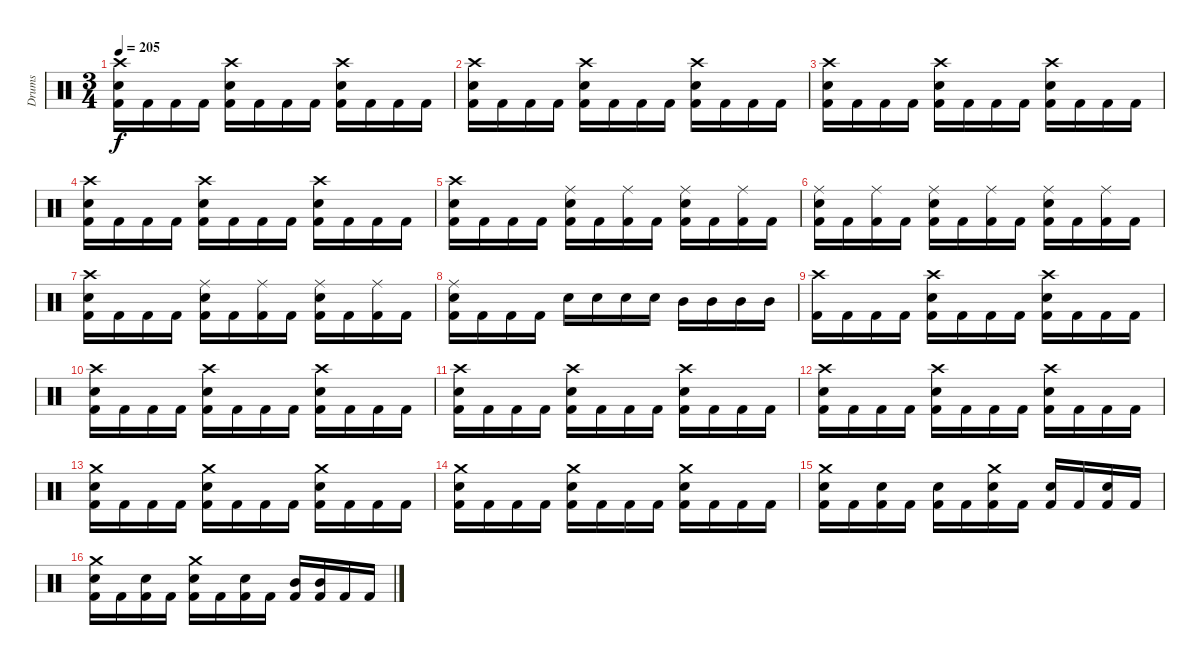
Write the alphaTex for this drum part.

\track ("Drums" "Drums") {instrument percussion}
\staff {score}
\articulation defaults
\ts (3 4)
\tempo 205
\clef neutral
\ks c
("Crash high (hit)" "Snare (hit) 2" "Kick (hit) 2").16{dy f} "Kick (hit) 2".16 "Kick (hit) 2".16 "Kick (hit) 2".16 ("Crash high (hit)" "Snare (hit) 2" "Kick (hit) 2").16 "Kick (hit) 2".16 "Kick (hit) 2".16 "Kick (hit) 2".16 ("Crash high (hit)" "Snare (hit) 2" "Kick (hit) 2").16 "Kick (hit) 2".16 "Kick (hit) 2".16 "Kick (hit) 2".16 |
("Crash high (hit)" "Snare (hit) 2" "Kick (hit) 2").16 "Kick (hit) 2".16 "Kick (hit) 2".16 "Kick (hit) 2".16 ("Crash high (hit)" "Snare (hit) 2" "Kick (hit) 2").16 "Kick (hit) 2".16 "Kick (hit) 2".16 "Kick (hit) 2".16 ("Crash high (hit)" "Snare (hit) 2" "Kick (hit) 2").16 "Kick (hit) 2".16 "Kick (hit) 2".16 "Kick (hit) 2".16 |
("Crash high (hit)" "Snare (hit) 2" "Kick (hit) 2").16 "Kick (hit) 2".16 "Kick (hit) 2".16 "Kick (hit) 2".16 ("Crash high (hit)" "Snare (hit) 2" "Kick (hit) 2").16 "Kick (hit) 2".16 "Kick (hit) 2".16 "Kick (hit) 2".16 ("Crash high (hit)" "Snare (hit) 2" "Kick (hit) 2").16 "Kick (hit) 2".16 "Kick (hit) 2".16 "Kick (hit) 2".16 |
("Crash high (hit)" "Snare (hit) 2" "Kick (hit) 2").16 "Kick (hit) 2".16 "Kick (hit) 2".16 "Kick (hit) 2".16 ("Crash high (hit)" "Snare (hit) 2" "Kick (hit) 2").16 "Kick (hit) 2".16 "Kick (hit) 2".16 "Kick (hit) 2".16 ("Crash high (hit)" "Snare (hit) 2" "Kick (hit) 2").16 "Kick (hit) 2".16 "Kick (hit) 2".16 "Kick (hit) 2".16 |
("Crash high (hit)" "Snare (hit) 2" "Kick (hit) 2").16 "Kick (hit) 2".16 "Kick (hit) 2".16 "Kick (hit) 2".16 ("Ride (middle)" "Snare (hit) 2" "Kick (hit) 2").16 "Kick (hit) 2".16 ("Ride (middle)" "Kick (hit) 2").16 "Kick (hit) 2".16 ("Ride (middle)" "Snare (hit) 2" "Kick (hit) 2").16 "Kick (hit) 2".16 ("Ride (middle)" "Kick (hit) 2").16 "Kick (hit) 2".16 |
("Ride (middle)" "Snare (hit) 2" "Kick (hit) 2").16 "Kick (hit) 2".16 ("Ride (middle)" "Kick (hit) 2").16 "Kick (hit) 2".16 ("Ride (middle)" "Snare (hit) 2" "Kick (hit) 2").16 "Kick (hit) 2".16 ("Ride (middle)" "Kick (hit) 2").16 "Kick (hit) 2".16 ("Ride (middle)" "Snare (hit) 2" "Kick (hit) 2").16 "Kick (hit) 2".16 ("Ride (middle)" "Kick (hit) 2").16 "Kick (hit) 2".16 |
("Crash high (hit)" "Snare (hit) 2" "Kick (hit) 2").16 "Kick (hit) 2".16 "Kick (hit) 2".16 "Kick (hit) 2".16 ("Ride (middle)" "Snare (hit) 2" "Kick (hit) 2").16 "Kick (hit) 2".16 ("Ride (middle)" "Kick (hit) 2").16 "Kick (hit) 2".16 ("Ride (middle)" "Snare (hit) 2" "Kick (hit) 2").16 "Kick (hit) 2".16 ("Ride (middle)" "Kick (hit) 2").16 "Kick (hit) 2".16 |
("Ride (middle)" "Snare (hit) 2" "Kick (hit) 2").16 "Kick (hit) 2".16 "Kick (hit) 2".16 "Kick (hit) 2".16 "Snare (hit) 2".16 "Snare (hit) 2".16 "Snare (hit) 2".16 "Snare (hit) 2".16 "Mid Tom (hit)".16 "Mid Tom (hit)".16 "Mid Tom (hit)".16 "Mid Tom (hit)".16 |
("Crash high (hit)" "Kick (hit) 2").16 "Kick (hit) 2".16 "Kick (hit) 2".16 "Kick (hit) 2".16 ("Crash high (hit)" "Snare (hit) 2" "Kick (hit) 2").16 "Kick (hit) 2".16 "Kick (hit) 2".16 "Kick (hit) 2".16 ("Crash high (hit)" "Snare (hit) 2" "Kick (hit) 2").16 "Kick (hit) 2".16 "Kick (hit) 2".16 "Kick (hit) 2".16 |
("Crash high (hit)" "Snare (hit) 2" "Kick (hit) 2").16 "Kick (hit) 2".16 "Kick (hit) 2".16 "Kick (hit) 2".16 ("Crash high (hit)" "Snare (hit) 2" "Kick (hit) 2").16 "Kick (hit) 2".16 "Kick (hit) 2".16 "Kick (hit) 2".16 ("Crash high (hit)" "Snare (hit) 2" "Kick (hit) 2").16 "Kick (hit) 2".16 "Kick (hit) 2".16 "Kick (hit) 2".16 |
("Crash high (hit)" "Snare (hit) 2" "Kick (hit) 2").16 "Kick (hit) 2".16 "Kick (hit) 2".16 "Kick (hit) 2".16 ("Crash high (hit)" "Snare (hit) 2" "Kick (hit) 2").16 "Kick (hit) 2".16 "Kick (hit) 2".16 "Kick (hit) 2".16 ("Crash high (hit)" "Snare (hit) 2" "Kick (hit) 2").16 "Kick (hit) 2".16 "Kick (hit) 2".16 "Kick (hit) 2".16 |
("Crash high (hit)" "Snare (hit) 2" "Kick (hit) 2").16 "Kick (hit) 2".16 "Kick (hit) 2".16 "Kick (hit) 2".16 ("Crash high (hit)" "Snare (hit) 2" "Kick (hit) 2").16 "Kick (hit) 2".16 "Kick (hit) 2".16 "Kick (hit) 2".16 ("Crash high (hit)" "Snare (hit) 2" "Kick (hit) 2").16 "Kick (hit) 2".16 "Kick (hit) 2".16 "Kick (hit) 2".16 |
("Crash medium (hit)" "Snare (hit) 2" "Kick (hit) 2").16 "Kick (hit) 2".16 "Kick (hit) 2".16 "Kick (hit) 2".16 ("Crash medium (hit)" "Snare (hit) 2" "Kick (hit) 2").16 "Kick (hit) 2".16 "Kick (hit) 2".16 "Kick (hit) 2".16 ("Crash medium (hit)" "Snare (hit) 2" "Kick (hit) 2").16 "Kick (hit) 2".16 "Kick (hit) 2".16 "Kick (hit) 2".16 |
("Crash medium (hit)" "Snare (hit) 2" "Kick (hit) 2").16 "Kick (hit) 2".16 "Kick (hit) 2".16 "Kick (hit) 2".16 ("Crash medium (hit)" "Snare (hit) 2" "Kick (hit) 2").16 "Kick (hit) 2".16 "Kick (hit) 2".16 "Kick (hit) 2".16 ("Crash medium (hit)" "Snare (hit) 2" "Kick (hit) 2").16 "Kick (hit) 2".16 "Kick (hit) 2".16 "Kick (hit) 2".16 |
("Crash medium (hit)" "Snare (hit) 2" "Kick (hit) 2").16 "Kick (hit) 2".16 ("Snare (hit) 2" "Kick (hit) 2").16 "Kick (hit) 2".16 ("Snare (hit) 2" "Kick (hit) 2").16 "Kick (hit) 2".16 ("Crash medium (hit)" "Snare (hit) 2" "Kick (hit) 2").16 "Kick (hit) 2".16 ("Snare (hit) 2" "Kick (hit) 2").16 "Kick (hit) 2".16 ("Snare (hit) 2" "Kick (hit) 2").16 "Kick (hit) 2".16 |
("Crash medium (hit)" "Snare (hit) 2" "Kick (hit) 2").16 "Kick (hit) 2".16 ("Snare (hit) 2" "Kick (hit) 2").16 "Kick (hit) 2".16 ("Crash medium (hit)" "Snare (hit) 2" "Kick (hit) 2").16 "Kick (hit) 2".16 ("Snare (hit) 2" "Kick (hit) 2").16 "Kick (hit) 2".16 ("Mid Tom (hit)" "Kick (hit) 2").16 ("Mid Tom (hit)" "Kick (hit) 2").16 "Kick (hit) 2".16 "Kick (hit) 2".16
